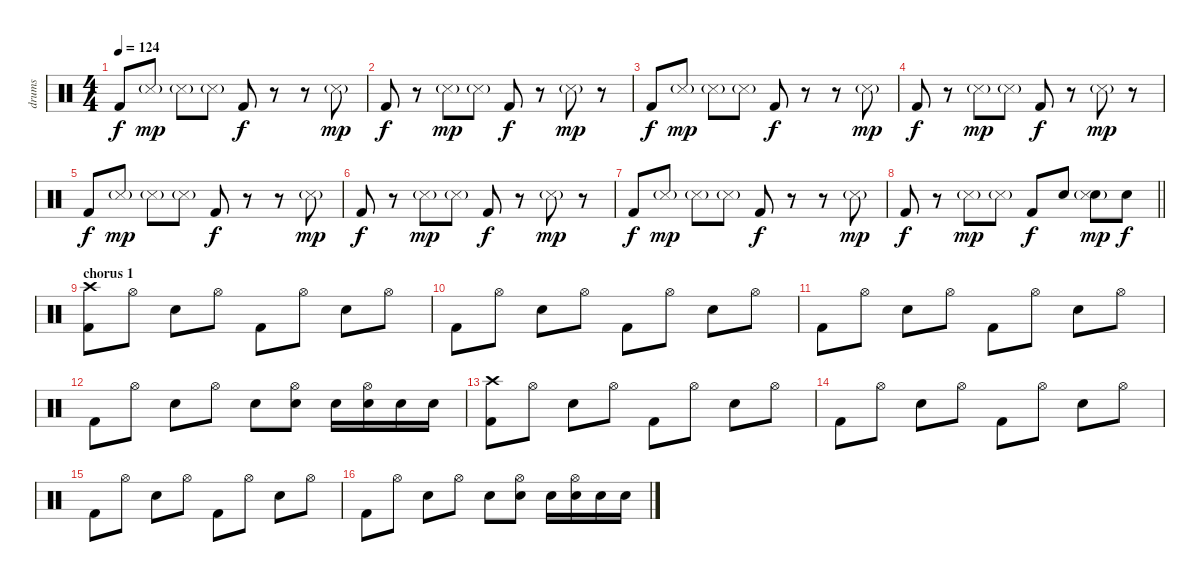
\track ("drums" "drums") {instrument percussion}
\staff {score}
\articulation defaults
\ts (4 4)
\tempo 124
\clef neutral
\ks c "Kick (hit) 2".8{dy f} "Snare (side stick) 3"{g}.8{dy mp} "Snare (side stick) 3"{g}.8 "Snare (side stick) 3"{g}.8 "Kick (hit) 2".8{dy f}
r.8 r.8 "Snare (side stick) 3"{g}.8{dy mp} |
"Kick (hit) 2".8{dy f} r.8 "Snare (side stick) 3"{g}.8{dy mp} "Snare (side stick) 3"{g}.8 "Kick (hit) 2".8{dy f} r.8 "Snare (side stick) 3"{g}.8{dy mp} r.8 |
"Kick (hit) 2".8{dy f} "Snare (side stick) 3"{g}.8{dy mp} "Snare (side stick) 3"{g}.8 "Snare (side stick) 3"{g}.8 "Kick (hit) 2".8{dy f} r.8 r.8 "Snare (side stick) 3"{g}.8{dy mp} |
"Kick (hit) 2".8{dy f} r.8 "Snare (side stick) 3"{g}.8{dy mp} "Snare (side stick) 3"{g}.8 "Kick (hit) 2".8{dy f} r.8 "Snare (side stick) 3"{g}.8{dy mp} r.8 |
"Kick (hit) 2".8{dy f} "Snare (side stick) 3"{g}.8{dy mp} "Snare (side stick) 3"{g}.8 "Snare (side stick) 3"{g}.8 "Kick (hit) 2".8{dy f} r.8 r.8 "Snare (side stick) 3"{g}.8{dy mp} |
"Kick (hit) 2".8{dy f} r.8 "Snare (side stick) 3"{g}.8{dy mp} "Snare (side stick) 3"{g}.8 "Kick (hit) 2".8{dy f} r.8 "Snare (side stick) 3"{g}.8{dy mp} r.8 |
"Kick (hit) 2".8{dy f} "Snare (side stick) 3"{g}.8{dy mp} "Snare (side stick) 3"{g}.8 "Snare (side stick) 3"{g}.8 "Kick (hit) 2".8{dy f} r.8 r.8 "Snare (side stick) 3"{g}.8{dy mp} |
\barLineRight lightlight "Kick (hit) 2".8{dy f}
r.8 "Snare (side stick) 3"{g}.8{dy mp} "Snare (side stick) 3"{g}.8 "Kick (hit) 2".8{dy f} "Electric Snare (hit)".8 ("Electric Snare (hit)" "Snare (side stick) 3"{g}).8{dy mp} "Electric Snare (hit)".8{dy f} |
\section ("" "chorus 1")
("Kick (hit) 2" "Crash high (hit)").8 "Hi-Hat (open)".8 "Electric Snare (hit)".8 "Hi-Hat (open)".8 "Kick (hit) 2".8 "Hi-Hat (open)".8 "Electric Snare (hit)".8 "Hi-Hat (open)".8 |
"Kick (hit) 2".8 "Hi-Hat (open)".8 "Electric Snare (hit)".8 "Hi-Hat (open)".8 "Kick (hit) 2".8 "Hi-Hat (open)".8 "Electric Snare (hit)".8 "Hi-Hat (open)".8 |
"Kick (hit) 2".8 "Hi-Hat (open)".8 "Electric Snare (hit)".8 "Hi-Hat (open)".8 "Kick (hit) 2".8 "Hi-Hat (open)".8 "Electric Snare (hit)".8 "Hi-Hat (open)".8 |
"Kick (hit) 2".8 "Hi-Hat (open)".8 "Electric Snare (hit)".8 "Hi-Hat (open)".8 "Electric Snare (hit)".8 ("Electric Snare (hit)" "Hi-Hat (open)").8 "Electric Snare (hit)".16 ("Electric Snare (hit)" "Hi-Hat (open)").16 "Electric Snare (hit)".16 "Electric Snare (hit)".16 |
("Kick (hit) 2" "Crash high (hit)").8 "Hi-Hat (open)".8 "Electric Snare (hit)".8 "Hi-Hat (open)".8 "Kick (hit) 2".8 "Hi-Hat (open)".8 "Electric Snare (hit)".8 "Hi-Hat (open)".8 |
"Kick (hit) 2".8 "Hi-Hat (open)".8 "Electric Snare (hit)".8 "Hi-Hat (open)".8 "Kick (hit) 2".8 "Hi-Hat (open)".8 "Electric Snare (hit)".8 "Hi-Hat (open)".8 |
"Kick (hit) 2".8 "Hi-Hat (open)".8 "Electric Snare (hit)".8 "Hi-Hat (open)".8 "Kick (hit) 2".8 "Hi-Hat (open)".8 "Electric Snare (hit)".8 "Hi-Hat (open)".8 |
"Kick (hit) 2".8 "Hi-Hat (open)".8 "Electric Snare (hit)".8 "Hi-Hat (open)".8 "Electric Snare (hit)".8 ("Electric Snare (hit)" "Hi-Hat (open)").8 "Electric Snare (hit)".16 ("Electric Snare (hit)" "Hi-Hat (open)").16 "Electric Snare (hit)".16 "Electric Snare (hit)".16
